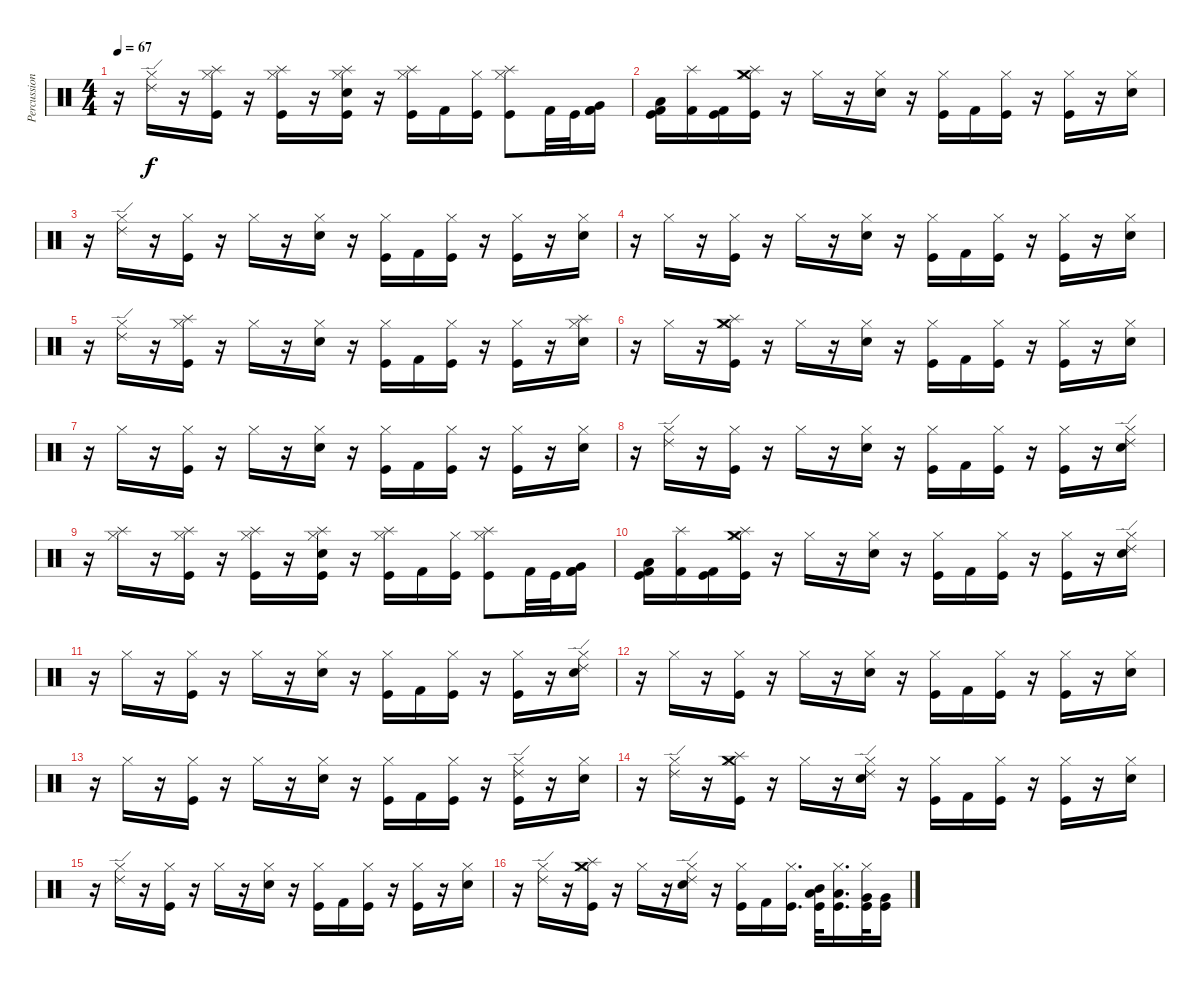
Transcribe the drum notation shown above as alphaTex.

\track ("Percussion" "Percussion") {instrument percussion}
\staff {score}
\articulation defaults
\ts (4 4)
\tempo 67
\clef neutral
\ks c
r.16{dy f} ("Hi-Hat (closed)" "Ride (edge) 2").16 r.16 ("Hi-Hat (closed)" "Kick (hit)" "Splash (hit)").16 r.16 ("Hi-Hat (closed)" "Kick (hit)" "Splash (hit)").16 r.16 ("Hi-Hat (closed)" "Electric Snare (hit)" "Kick (hit)" "Splash (hit)").16 r.16 ("Hi-Hat (closed)" "Kick (hit)" "Splash (hit)").16 "Kick (hit) 2".16 ("Hi-Hat (closed)" "Kick (hit)").16 ("Hi-Hat (closed)" "Kick (hit)" "Splash (hit)").8 "Kick (hit) 2".32 "Kick (hit)".32 ("Kick (hit) 2" "Kick (hit) 2" "Very Low Tom (hit)").16 |
("Kick (hit)" "Kick (hit) 2" "Low Tom (hit)").16 ("Kick (hit) 2" "Splash (hit)").16 ("Kick (hit)" "Kick (hit) 2").16 ("Hi-Hat (closed)" "Kick (hit)" "Crash medium (hit)" "Splash (hit)").16 r.16 "Hi-Hat (closed)".16 r.16 ("Hi-Hat (closed)" "Electric Snare (hit)").16 r.16 ("Hi-Hat (closed)" "Kick (hit)").16 "Kick (hit) 2".16 ("Hi-Hat (closed)" "Kick (hit)").16 r.16 ("Hi-Hat (closed)" "Kick (hit)").16 r.16 ("Hi-Hat (closed)" "Electric Snare (hit)").16 |
r.16 ("Hi-Hat (closed)" "Ride (edge) 2").16 r.16 ("Hi-Hat (closed)" "Kick (hit)").16 r.16 "Hi-Hat (closed)".16 r.16 ("Hi-Hat (closed)" "Electric Snare (hit)").16 r.16 ("Hi-Hat (closed)" "Kick (hit)").16 "Kick (hit) 2".16 ("Hi-Hat (closed)" "Kick (hit)").16 r.16 ("Hi-Hat (closed)" "Kick (hit)").16 r.16 ("Hi-Hat (closed)" "Electric Snare (hit)").16 |
r.16 "Hi-Hat (closed)".16 r.16 ("Hi-Hat (closed)" "Kick (hit)").16 r.16 "Hi-Hat (closed)".16 r.16 ("Hi-Hat (closed)" "Electric Snare (hit)").16 r.16 ("Hi-Hat (closed)" "Kick (hit)").16 "Kick (hit) 2".16 ("Hi-Hat (closed)" "Kick (hit)").16 r.16 ("Hi-Hat (closed)" "Kick (hit)").16 r.16 ("Hi-Hat (closed)" "Electric Snare (hit)").16 |
r.16 ("Hi-Hat (closed)" "Ride (edge) 2").16 r.16 ("Hi-Hat (closed)" "Kick (hit)" "Splash (hit)").16 r.16 "Hi-Hat (closed)".16 r.16 ("Hi-Hat (closed)" "Electric Snare (hit)").16 r.16 ("Hi-Hat (closed)" "Kick (hit)").16 "Kick (hit) 2".16 ("Hi-Hat (closed)" "Kick (hit)").16 r.16 ("Hi-Hat (closed)" "Kick (hit)").16 r.16 ("Hi-Hat (closed)" "Electric Snare (hit)" "Splash (hit)").16 |
r.16 "Hi-Hat (closed)".16 r.16 ("Hi-Hat (closed)" "Kick (hit)" "Crash medium (hit)" "Splash (hit)").16 r.16 "Hi-Hat (closed)".16 r.16 ("Hi-Hat (closed)" "Electric Snare (hit)").16 r.16 ("Hi-Hat (closed)" "Kick (hit)").16 "Kick (hit) 2".16 ("Hi-Hat (closed)" "Kick (hit)").16 r.16 ("Hi-Hat (closed)" "Kick (hit)").16 r.16 ("Hi-Hat (closed)" "Electric Snare (hit)").16 |
r.16 "Hi-Hat (closed)".16 r.16 ("Hi-Hat (closed)" "Kick (hit)").16 r.16 "Hi-Hat (closed)".16 r.16 ("Hi-Hat (closed)" "Electric Snare (hit)").16 r.16 ("Hi-Hat (closed)" "Kick (hit)").16 "Kick (hit) 2".16 ("Hi-Hat (closed)" "Kick (hit)").16 r.16 ("Hi-Hat (closed)" "Kick (hit)").16 r.16 ("Hi-Hat (closed)" "Electric Snare (hit)").16 |
r.16 ("Hi-Hat (closed)" "Ride (edge) 2").16 r.16 ("Hi-Hat (closed)" "Kick (hit)").16 r.16 "Hi-Hat (closed)".16 r.16 ("Hi-Hat (closed)" "Electric Snare (hit)").16 r.16 ("Hi-Hat (closed)" "Kick (hit)").16 "Kick (hit) 2".16 ("Hi-Hat (closed)" "Kick (hit)").16 r.16 ("Hi-Hat (closed)" "Kick (hit)").16 r.16 ("Hi-Hat (closed)" "Electric Snare (hit)" "Ride (edge) 2").16 |
r.16 ("Hi-Hat (closed)" "Splash (hit)").16 r.16 ("Hi-Hat (closed)" "Kick (hit)" "Splash (hit)").16 r.16 ("Hi-Hat (closed)" "Kick (hit)" "Splash (hit)").16 r.16 ("Hi-Hat (closed)" "Electric Snare (hit)" "Kick (hit)" "Splash (hit)").16 r.16 ("Hi-Hat (closed)" "Kick (hit)" "Splash (hit)").16 "Kick (hit) 2".16 ("Hi-Hat (closed)" "Kick (hit)").16 ("Hi-Hat (closed)" "Kick (hit)" "Splash (hit)").8 "Kick (hit) 2".32 "Kick (hit)".32 ("Kick (hit) 2" "Kick (hit) 2" "Very Low Tom (hit)").16 |
("Kick (hit)" "Kick (hit) 2" "Low Tom (hit)").16 ("Kick (hit) 2" "Splash (hit)").16 ("Kick (hit)" "Kick (hit) 2").16 ("Hi-Hat (closed)" "Kick (hit)" "Crash medium (hit)" "Splash (hit)").16 r.16 "Hi-Hat (closed)".16 r.16 ("Hi-Hat (closed)" "Electric Snare (hit)").16 r.16 ("Hi-Hat (closed)" "Kick (hit)").16 "Kick (hit) 2".16 ("Hi-Hat (closed)" "Kick (hit)").16 r.16 ("Hi-Hat (closed)" "Kick (hit)").16 r.16 ("Hi-Hat (closed)" "Electric Snare (hit)" "Ride (edge) 2").16 |
r.16 "Hi-Hat (closed)".16 r.16 ("Hi-Hat (closed)" "Kick (hit)").16 r.16 "Hi-Hat (closed)".16 r.16 ("Hi-Hat (closed)" "Electric Snare (hit)").16 r.16 ("Hi-Hat (closed)" "Kick (hit)").16 "Kick (hit) 2".16 ("Hi-Hat (closed)" "Kick (hit)").16 r.16 ("Hi-Hat (closed)" "Kick (hit)").16 r.16 ("Hi-Hat (closed)" "Electric Snare (hit)" "Ride (edge) 2").16 |
r.16 "Hi-Hat (closed)".16 r.16 ("Hi-Hat (closed)" "Kick (hit)").16 r.16 "Hi-Hat (closed)".16 r.16 ("Hi-Hat (closed)" "Electric Snare (hit)").16 r.16 ("Hi-Hat (closed)" "Kick (hit)").16 "Kick (hit) 2".16 ("Hi-Hat (closed)" "Kick (hit)").16 r.16 ("Hi-Hat (closed)" "Kick (hit)").16 r.16 ("Hi-Hat (closed)" "Electric Snare (hit)").16 |
r.16 "Hi-Hat (closed)".16 r.16 ("Hi-Hat (closed)" "Kick (hit)").16 r.16 "Hi-Hat (closed)".16 r.16 ("Hi-Hat (closed)" "Electric Snare (hit)").16 r.16 ("Hi-Hat (closed)" "Kick (hit)").16 "Kick (hit) 2".16 ("Hi-Hat (closed)" "Kick (hit)").16 r.16 ("Hi-Hat (closed)" "Kick (hit)" "Ride (edge) 2").16 r.16 ("Hi-Hat (closed)" "Electric Snare (hit)").16 |
r.16 ("Hi-Hat (closed)" "Ride (edge) 2").16 r.16 ("Hi-Hat (closed)" "Kick (hit)" "Crash medium (hit)" "Splash (hit)").16 r.16 "Hi-Hat (closed)".16 r.16 ("Hi-Hat (closed)" "Electric Snare (hit)" "Ride (edge) 2").16 r.16 ("Hi-Hat (closed)" "Kick (hit)").16 "Kick (hit) 2".16 ("Hi-Hat (closed)" "Kick (hit)").16 r.16 ("Hi-Hat (closed)" "Kick (hit)").16 r.16 ("Hi-Hat (closed)" "Electric Snare (hit)").16 |
r.16 ("Hi-Hat (closed)" "Ride (edge) 2").16 r.16 ("Hi-Hat (closed)" "Kick (hit)").16 r.16 "Hi-Hat (closed)".16 r.16 ("Hi-Hat (closed)" "Electric Snare (hit)").16 r.16 ("Hi-Hat (closed)" "Kick (hit)").16 "Kick (hit) 2".16 ("Hi-Hat (closed)" "Kick (hit)").16 r.16 ("Hi-Hat (closed)" "Kick (hit)").16 r.16 ("Hi-Hat (closed)" "Electric Snare (hit)").16 |
r.16 ("Hi-Hat (closed)" "Ride (edge) 2").16 r.16 ("Hi-Hat (closed)" "Kick (hit)" "Crash medium (hit)" "Splash (hit)").16 r.16 "Hi-Hat (closed)".16 r.16 ("Hi-Hat (closed)" "Electric Snare (hit)" "Ride (edge) 2").16 r.16 ("Hi-Hat (closed)" "Kick (hit)").16 "Kick (hit) 2".16 ("Kick (hit)" "Hi-Hat (closed)").16{d} ("Kick (hit)" "Mid Tom (hit)" "Low Tom (hit)").32 ("Kick (hit)" "Hi-Hat (closed)" "Low Tom (hit)").16{d} ("Kick (hit)" "Hi-Hat (closed)" "Very Low Tom (hit)").32 ("Kick (hit)" "Very Low Tom (hit)").16
